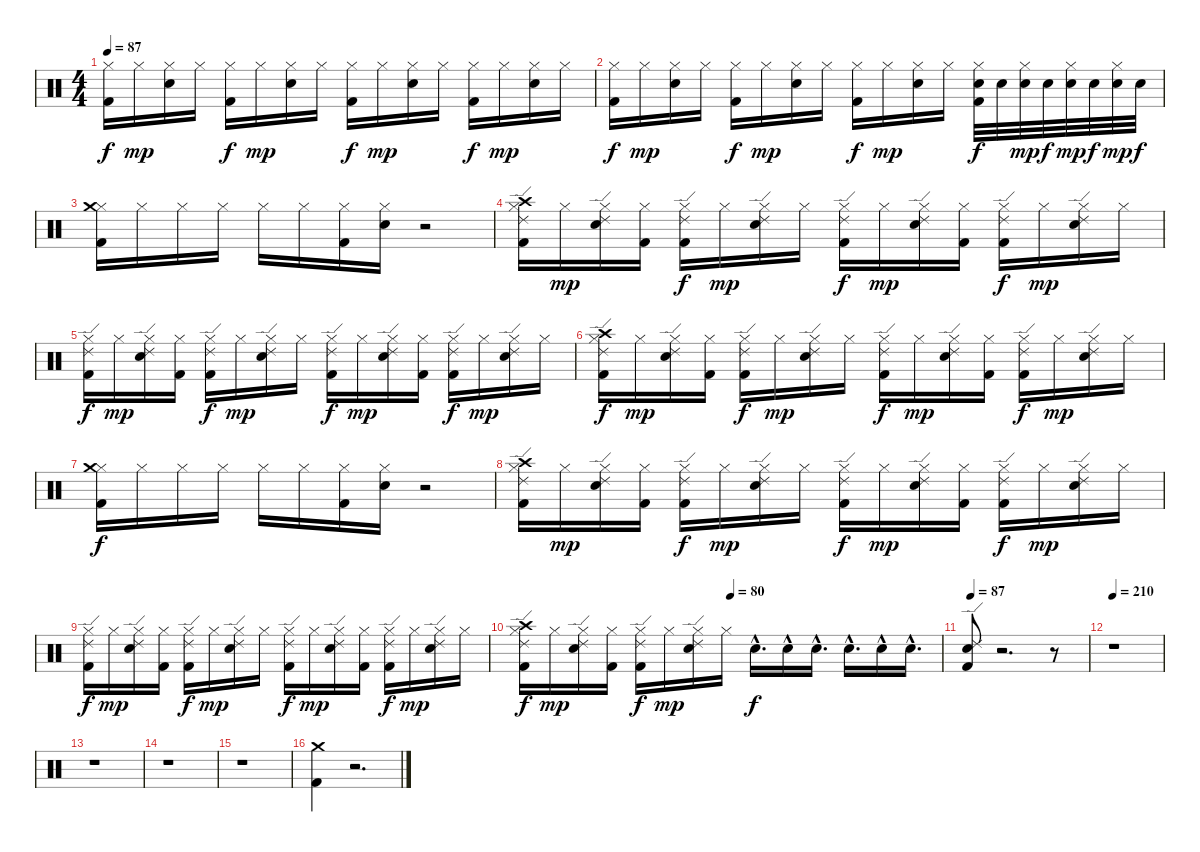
\track "" {instrument percussion}
\staff {score}
\articulation defaults
\ts (4 4)
\tempo 87
\clef neutral
\ks c
("Hi-Hat (closed)" "Kick (hit) 2").16{dy f} "Hi-Hat (closed)".16{dy mp} ("Hi-Hat (closed)" "Electric Snare (hit)").16 "Hi-Hat (closed)".16 ("Hi-Hat (closed)" "Kick (hit) 2").16{dy f} "Hi-Hat (closed)".16{dy mp} ("Hi-Hat (closed)" "Electric Snare (hit)").16 "Hi-Hat (closed)".16 ("Hi-Hat (closed)" "Kick (hit) 2").16{dy f} "Hi-Hat (closed)".16{dy mp} ("Hi-Hat (closed)" "Electric Snare (hit)").16 "Hi-Hat (closed)".16 ("Hi-Hat (closed)" "Kick (hit) 2").16{dy f} "Hi-Hat (closed)".16{dy mp} ("Hi-Hat (closed)" "Electric Snare (hit)").16 "Hi-Hat (closed)".16 |
("Hi-Hat (closed)" "Kick (hit) 2").16{dy f} "Hi-Hat (closed)".16{dy mp} ("Hi-Hat (closed)" "Electric Snare (hit)").16 "Hi-Hat (closed)".16 ("Hi-Hat (closed)" "Kick (hit) 2").16{dy f} "Hi-Hat (closed)".16{dy mp} ("Hi-Hat (closed)" "Electric Snare (hit)").16 "Hi-Hat (closed)".16 ("Hi-Hat (closed)" "Kick (hit) 2").16{dy f} "Hi-Hat (closed)".16{dy mp} ("Hi-Hat (closed)" "Electric Snare (hit)").16 "Hi-Hat (closed)".16 ("Electric Snare (hit)" "Hi-Hat (closed)" "Kick (hit) 2").32{dy f} "Electric Snare (hit)".32 ("Electric Snare (hit)" "Hi-Hat (closed)").32{dy mp} "Electric Snare (hit)".32{dy f} ("Hi-Hat (closed)" "Electric Snare (hit)").32{dy mp} "Electric Snare (hit)".32{dy f} ("Electric Snare (hit)" "Hi-Hat (closed)").32{dy mp} "Electric Snare (hit)".32{dy f} |
("Hi-Hat (closed)" "Crash medium (hit)" "Kick (hit) 2").16 "Hi-Hat (closed)".16 "Hi-Hat (closed)".16 "Hi-Hat (closed)".16 "Hi-Hat (closed)".16 "Hi-Hat (closed)".16 ("Hi-Hat (closed)" "Kick (hit) 2").16 ("Hi-Hat (closed)" "Electric Snare (hit)").16 r.2 |
("Hi-Hat (closed)" "Crash high (hit)" "Ride (edge) 2" "Kick (hit) 2").16 "Hi-Hat (closed)".16{dy mp} ("Hi-Hat (closed)" "Ride (edge) 2" "Electric Snare (hit)").16 ("Kick (hit) 2" "Hi-Hat (closed)").16 ("Hi-Hat (closed)" "Ride (edge) 2" "Kick (hit) 2").16{dy f} "Hi-Hat (closed)".16{dy mp} ("Hi-Hat (closed)" "Electric Snare (hit)" "Ride (edge) 2").16 "Hi-Hat (closed)".16 ("Hi-Hat (closed)" "Ride (edge) 2" "Kick (hit) 2").16{dy f} "Hi-Hat (closed)".16{dy mp} ("Hi-Hat (closed)" "Ride (edge) 2" "Electric Snare (hit)").16 ("Kick (hit) 2" "Hi-Hat (closed)").16 ("Hi-Hat (closed)" "Ride (edge) 2" "Kick (hit) 2").16{dy f} "Hi-Hat (closed)".16{dy mp} ("Hi-Hat (closed)" "Ride (edge) 2" "Electric Snare (hit)").16 "Hi-Hat (closed)".16 |
("Hi-Hat (closed)" "Ride (edge) 2" "Kick (hit) 2").16{dy f} "Hi-Hat (closed)".16{dy mp} ("Hi-Hat (closed)" "Ride (edge) 2" "Electric Snare (hit)").16 ("Kick (hit) 2" "Hi-Hat (closed)").16 ("Hi-Hat (closed)" "Ride (edge) 2" "Kick (hit) 2").16{dy f} "Hi-Hat (closed)".16{dy mp} ("Hi-Hat (closed)" "Electric Snare (hit)" "Ride (edge) 2").16 "Hi-Hat (closed)".16 ("Hi-Hat (closed)" "Ride (edge) 2" "Kick (hit) 2").16{dy f} "Hi-Hat (closed)".16{dy mp} ("Hi-Hat (closed)" "Ride (edge) 2" "Electric Snare (hit)").16 ("Kick (hit) 2" "Hi-Hat (closed)").16 ("Hi-Hat (closed)" "Ride (edge) 2" "Kick (hit) 2").16{dy f} "Hi-Hat (closed)".16{dy mp} ("Hi-Hat (closed)" "Ride (edge) 2" "Electric Snare (hit)").16 "Hi-Hat (closed)".16 |
("Hi-Hat (closed)" "Crash high (hit)" "Ride (edge) 2" "Kick (hit) 2").16{dy f} "Hi-Hat (closed)".16{dy mp} ("Hi-Hat (closed)" "Ride (edge) 2" "Electric Snare (hit)").16 ("Kick (hit) 2" "Hi-Hat (closed)").16 ("Hi-Hat (closed)" "Ride (edge) 2" "Kick (hit) 2").16{dy f} "Hi-Hat (closed)".16{dy mp} ("Hi-Hat (closed)" "Electric Snare (hit)" "Ride (edge) 2").16 "Hi-Hat (closed)".16 ("Hi-Hat (closed)" "Ride (edge) 2" "Kick (hit) 2").16{dy f} "Hi-Hat (closed)".16{dy mp} ("Hi-Hat (closed)" "Ride (edge) 2" "Electric Snare (hit)").16 ("Kick (hit) 2" "Hi-Hat (closed)").16 ("Hi-Hat (closed)" "Ride (edge) 2" "Kick (hit) 2").16{dy f} "Hi-Hat (closed)".16{dy mp} ("Hi-Hat (closed)" "Ride (edge) 2" "Electric Snare (hit)").16 "Hi-Hat (closed)".16 |
("Hi-Hat (closed)" "Crash medium (hit)" "Kick (hit) 2").16{dy f} "Hi-Hat (closed)".16 "Hi-Hat (closed)".16 "Hi-Hat (closed)".16 "Hi-Hat (closed)".16 "Hi-Hat (closed)".16 ("Hi-Hat (closed)" "Kick (hit) 2").16 ("Hi-Hat (closed)" "Electric Snare (hit)").16 r.2 |
("Hi-Hat (closed)" "Crash high (hit)" "Ride (edge) 2" "Kick (hit) 2").16 "Hi-Hat (closed)".16{dy mp} ("Hi-Hat (closed)" "Ride (edge) 2" "Electric Snare (hit)").16 ("Kick (hit) 2" "Hi-Hat (closed)").16 ("Hi-Hat (closed)" "Ride (edge) 2" "Kick (hit) 2").16{dy f} "Hi-Hat (closed)".16{dy mp} ("Hi-Hat (closed)" "Electric Snare (hit)" "Ride (edge) 2").16 "Hi-Hat (closed)".16 ("Hi-Hat (closed)" "Ride (edge) 2" "Kick (hit) 2").16{dy f} "Hi-Hat (closed)".16{dy mp} ("Hi-Hat (closed)" "Ride (edge) 2" "Electric Snare (hit)").16 ("Kick (hit) 2" "Hi-Hat (closed)").16 ("Hi-Hat (closed)" "Ride (edge) 2" "Kick (hit) 2").16{dy f} "Hi-Hat (closed)".16{dy mp} ("Hi-Hat (closed)" "Ride (edge) 2" "Electric Snare (hit)").16 "Hi-Hat (closed)".16 |
("Hi-Hat (closed)" "Ride (edge) 2" "Kick (hit) 2").16{dy f} "Hi-Hat (closed)".16{dy mp} ("Hi-Hat (closed)" "Ride (edge) 2" "Electric Snare (hit)").16 ("Kick (hit) 2" "Hi-Hat (closed)").16 ("Hi-Hat (closed)" "Ride (edge) 2" "Kick (hit) 2").16{dy f} "Hi-Hat (closed)".16{dy mp} ("Hi-Hat (closed)" "Electric Snare (hit)" "Ride (edge) 2").16 "Hi-Hat (closed)".16 ("Hi-Hat (closed)" "Ride (edge) 2" "Kick (hit) 2").16{dy f} "Hi-Hat (closed)".16{dy mp} ("Hi-Hat (closed)" "Ride (edge) 2" "Electric Snare (hit)").16 ("Kick (hit) 2" "Hi-Hat (closed)").16 ("Hi-Hat (closed)" "Ride (edge) 2" "Kick (hit) 2").16{dy f} "Hi-Hat (closed)".16{dy mp} ("Hi-Hat (closed)" "Ride (edge) 2" "Electric Snare (hit)").16 "Hi-Hat (closed)".16 |
\tempo (80 0.5)
("Hi-Hat (closed)" "Crash high (hit)" "Ride (edge) 2" "Kick (hit) 2").16{dy f} "Hi-Hat (closed)".16{dy mp} ("Hi-Hat (closed)" "Ride (edge) 2" "Electric Snare (hit)").16 ("Kick (hit) 2" "Hi-Hat (closed)").16 ("Hi-Hat (closed)" "Ride (edge) 2" "Kick (hit) 2").16{dy f} "Hi-Hat (closed)".16{dy mp} ("Hi-Hat (closed)" "Electric Snare (hit)" "Ride (edge) 2").16 "Hi-Hat (closed)".16 "Electric Snare (hit)"{hac}.16{d dy f} "Electric Snare (hit)"{hac}.16 "Electric Snare (hit)"{hac}.16{d} "Snare (hit) 2"{hac}.16{d} "Snare (hit) 2"{hac}.16 "Snare (hit) 2"{hac}.16{d} |
\tempo 87
("Electric Snare (hit)" "Ride (edge) 2" "Kick (hit) 2").8 r.2{d} r.8 |
\tempo 210
r.1 |
r.1 |
r.1 |
r.1 |
("Crash medium (hit)" "Kick (hit) 2").4 r.2{d}
